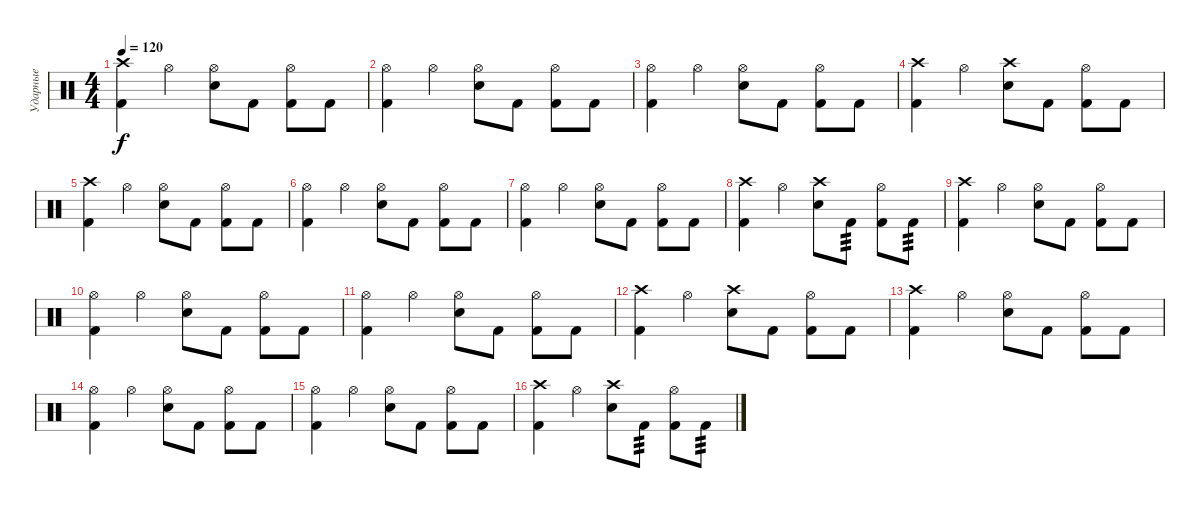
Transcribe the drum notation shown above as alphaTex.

\track ("Ударные" "Ударные") {instrument percussion}
\staff {score}
\articulation defaults
\ts (4 4)
\tempo 120
\clef neutral
\ks c
("Crash high (hit)" "Kick (hit) 2").4{dy f} "Hi-Hat (open)".4 ("Hi-Hat (open)" "Snare (hit) 2").8 "Kick (hit) 2".8 ("Hi-Hat (open)" "Kick (hit) 2").8 "Kick (hit) 2".8 |
("Hi-Hat (open)" "Kick (hit) 2").4 "Hi-Hat (open)".4 ("Hi-Hat (open)" "Snare (hit) 2").8 "Kick (hit) 2".8 ("Hi-Hat (open)" "Kick (hit) 2").8 "Kick (hit) 2".8 |
("Hi-Hat (open)" "Kick (hit) 2").4 "Hi-Hat (open)".4 ("Hi-Hat (open)" "Snare (hit) 2").8 "Kick (hit) 2".8 ("Hi-Hat (open)" "Kick (hit) 2").8 "Kick (hit) 2".8 |
("Crash high (hit)" "Kick (hit) 2").4 "Hi-Hat (open)".4 ("Crash high (hit)" "Snare (hit) 2").8 "Kick (hit) 2".8 ("Hi-Hat (open)" "Kick (hit) 2").8 "Kick (hit) 2".8 |
("Crash high (hit)" "Kick (hit) 2").4 "Hi-Hat (open)".4 ("Hi-Hat (open)" "Snare (hit) 2").8 "Kick (hit) 2".8 ("Hi-Hat (open)" "Kick (hit) 2").8 "Kick (hit) 2".8 |
("Hi-Hat (open)" "Kick (hit) 2").4 "Hi-Hat (open)".4 ("Hi-Hat (open)" "Snare (hit) 2").8 "Kick (hit) 2".8 ("Hi-Hat (open)" "Kick (hit) 2").8 "Kick (hit) 2".8 |
("Hi-Hat (open)" "Kick (hit) 2").4 "Hi-Hat (open)".4 ("Hi-Hat (open)" "Snare (hit) 2").8 "Kick (hit) 2".8 ("Hi-Hat (open)" "Kick (hit) 2").8 "Kick (hit) 2".8 |
("Crash high (hit)" "Kick (hit) 2").4 "Hi-Hat (open)".4 ("Crash high (hit)" "Snare (hit) 2").8 "Kick (hit) 2".8{tp 3} ("Hi-Hat (open)" "Kick (hit) 2").8 "Kick (hit) 2".8{tp 3} |
("Crash high (hit)" "Kick (hit) 2").4 "Hi-Hat (open)".4 ("Hi-Hat (open)" "Snare (hit) 2").8 "Kick (hit) 2".8 ("Hi-Hat (open)" "Kick (hit) 2").8 "Kick (hit) 2".8 |
("Hi-Hat (open)" "Kick (hit) 2").4 "Hi-Hat (open)".4 ("Hi-Hat (open)" "Snare (hit) 2").8 "Kick (hit) 2".8 ("Hi-Hat (open)" "Kick (hit) 2").8 "Kick (hit) 2".8 |
("Hi-Hat (open)" "Kick (hit) 2").4 "Hi-Hat (open)".4 ("Hi-Hat (open)" "Snare (hit) 2").8 "Kick (hit) 2".8 ("Hi-Hat (open)" "Kick (hit) 2").8 "Kick (hit) 2".8 |
("Crash high (hit)" "Kick (hit) 2").4 "Hi-Hat (open)".4 ("Crash high (hit)" "Snare (hit) 2").8 "Kick (hit) 2".8 ("Hi-Hat (open)" "Kick (hit) 2").8 "Kick (hit) 2".8 |
("Crash high (hit)" "Kick (hit) 2").4 "Hi-Hat (open)".4 ("Hi-Hat (open)" "Snare (hit) 2").8 "Kick (hit) 2".8 ("Hi-Hat (open)" "Kick (hit) 2").8 "Kick (hit) 2".8 |
("Hi-Hat (open)" "Kick (hit) 2").4 "Hi-Hat (open)".4 ("Hi-Hat (open)" "Snare (hit) 2").8 "Kick (hit) 2".8 ("Hi-Hat (open)" "Kick (hit) 2").8 "Kick (hit) 2".8 |
("Hi-Hat (open)" "Kick (hit) 2").4 "Hi-Hat (open)".4 ("Hi-Hat (open)" "Snare (hit) 2").8 "Kick (hit) 2".8 ("Hi-Hat (open)" "Kick (hit) 2").8 "Kick (hit) 2".8 |
("Crash high (hit)" "Kick (hit) 2").4 "Hi-Hat (open)".4 ("Crash high (hit)" "Snare (hit) 2").8 "Kick (hit) 2".8{tp 3} ("Hi-Hat (open)" "Kick (hit) 2").8 "Kick (hit) 2".8{tp 3}
